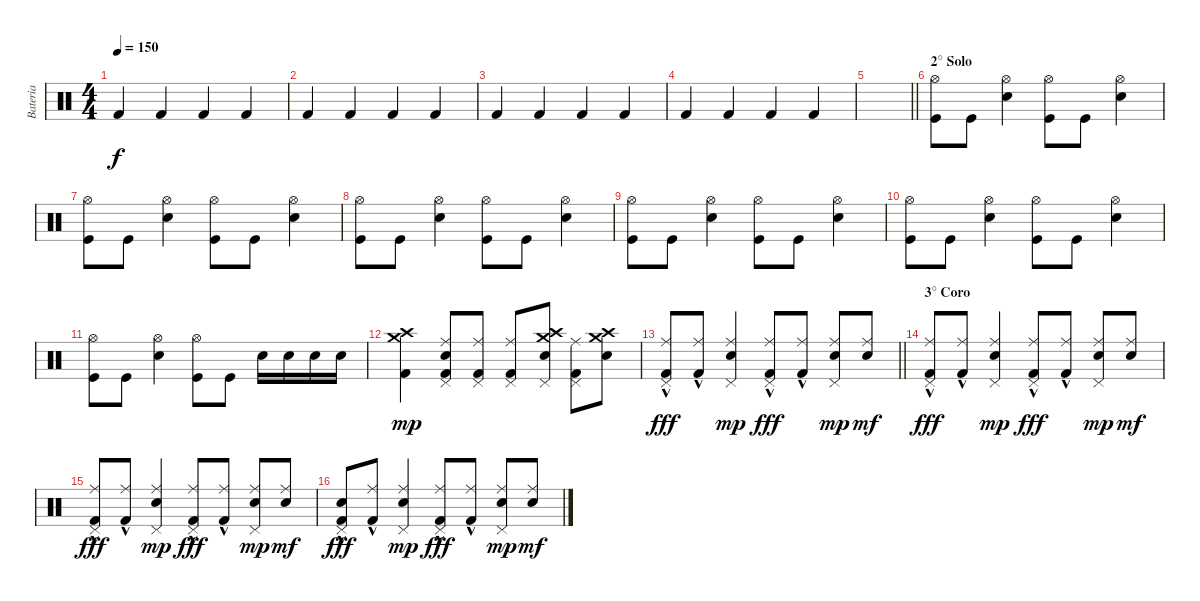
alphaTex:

\track ("Bateria" "Bateria") {instrument percussion}
\staff {score}
\articulation defaults
\ts (4 4)
\tempo 150
\clef neutral
\ks c "Kick (hit) 2".4{dy f} "Kick (hit) 2".4 "Kick (hit) 2".4 "Kick (hit) 2".4
|
"Kick (hit) 2".4 "Kick (hit) 2".4 "Kick (hit) 2".4 "Kick (hit) 2".4 |
"Kick (hit) 2".4 "Kick (hit) 2".4 "Kick (hit) 2".4 "Kick (hit) 2".4 |
"Kick (hit) 2".4 "Kick (hit) 2".4 "Kick (hit) 2".4 "Kick (hit) 2".4 |
\barLineRight lightlight
|
\section ("" "2° Solo ")
("Hi-Hat (open)" "Kick (hit)").8 "Kick (hit)".8 ("Hi-Hat (open)" "Snare (hit) 2").4 ("Hi-Hat (open)" "Kick (hit)").8 "Kick (hit)".8 ("Hi-Hat (open)" "Snare (hit) 2").4 |
("Hi-Hat (open)" "Kick (hit)").8 "Kick (hit)".8 ("Hi-Hat (open)" "Snare (hit) 2").4 ("Hi-Hat (open)" "Kick (hit)").8 "Kick (hit)".8 ("Hi-Hat (open)" "Snare (hit) 2").4 |
("Hi-Hat (open)" "Kick (hit)").8 "Kick (hit)".8 ("Hi-Hat (open)" "Snare (hit) 2").4 ("Hi-Hat (open)" "Kick (hit)").8 "Kick (hit)".8 ("Hi-Hat (open)" "Snare (hit) 2").4 |
("Hi-Hat (open)" "Kick (hit)").8 "Kick (hit)".8 ("Hi-Hat (open)" "Snare (hit) 2").4 ("Hi-Hat (open)" "Kick (hit)").8 "Kick (hit)".8 ("Hi-Hat (open)" "Snare (hit) 2").4 |
("Hi-Hat (open)" "Kick (hit)").8 "Kick (hit)".8 ("Hi-Hat (open)" "Snare (hit) 2").4 ("Hi-Hat (open)" "Kick (hit)").8 "Kick (hit)".8 ("Hi-Hat (open)" "Snare (hit) 2").4 |
("Hi-Hat (open)" "Kick (hit)").8 "Kick (hit)".8 ("Hi-Hat (open)" "Snare (hit) 2").4 ("Hi-Hat (open)" "Kick (hit)").8 "Kick (hit)".8 "Electric Snare (hit)".16 "Electric Snare (hit)".16 "Electric Snare (hit)".16 "Electric Snare (hit)".16 |
("Crash high (hit)" "Crash medium (hit)" "Kick (hit) 2").4{dy mp} ("Ride (middle)" "Pedal Hi-Hat (hit)" "Electric Snare (hit)" "Kick (hit) 2").8 ("Ride (middle)" "Pedal Hi-Hat (hit)" "Kick (hit) 2").8 ("Ride (middle)" "Pedal Hi-Hat (hit)" "Kick (hit) 2").8 ("Crash high (hit)" "Pedal Hi-Hat (hit)" "Electric Snare (hit)" "Crash medium (hit)").8 ("Ride (middle)" "Pedal Hi-Hat (hit)" "Kick (hit) 2").8 ("Crash medium (hit)" "Electric Snare (hit)" "Crash high (hit)").8 |
\barLineRight lightlight
("Ride (middle)" "Pedal Hi-Hat (hit)" "Kick (hit) 2"{hac}).8{dy fff} ("Ride (middle)" "Kick (hit) 2"{hac}).8 ("Ride (middle)" "Pedal Hi-Hat (hit)" "Electric Snare (hit)").4{dy mp} ("Ride (middle)" "Pedal Hi-Hat (hit)" "Kick (hit) 2"{hac}).8{dy fff} ("Ride (middle)" "Kick (hit) 2"{hac}).8 ("Ride (middle)" "Pedal Hi-Hat (hit)" "Electric Snare (hit)").8{dy mp} ("Ride (middle)" "Electric Snare (hit)").8{dy mf} |
\section ("" "3° Coro")
("Ride (middle)" "Pedal Hi-Hat (hit)" "Kick (hit) 2"{hac}).8{dy fff} ("Ride (middle)" "Kick (hit) 2"{hac}).8 ("Ride (middle)" "Pedal Hi-Hat (hit)" "Electric Snare (hit)").4{dy mp} ("Ride (middle)" "Pedal Hi-Hat (hit)" "Kick (hit) 2"{hac}).8{dy fff} ("Ride (middle)" "Kick (hit) 2"{hac}).8 ("Ride (middle)" "Pedal Hi-Hat (hit)" "Electric Snare (hit)").8{dy mp} ("Ride (middle)" "Electric Snare (hit)").8{dy mf} |
("Ride (middle)" "Pedal Hi-Hat (hit)" "Kick (hit) 2"{hac}).8{dy fff} ("Ride (middle)" "Kick (hit) 2"{hac}).8 ("Ride (middle)" "Pedal Hi-Hat (hit)" "Electric Snare (hit)").4{dy mp} ("Ride (middle)" "Pedal Hi-Hat (hit)" "Kick (hit) 2"{hac}).8{dy fff} ("Ride (middle)" "Kick (hit) 2"{hac}).8 ("Ride (middle)" "Pedal Hi-Hat (hit)" "Electric Snare (hit)").8{dy mp} ("Ride (middle)" "Electric Snare (hit)").8{dy mf} |
("Snare (hit)" "Pedal Hi-Hat (hit)" "Kick (hit) 2"{hac}).8{dy fff} ("Ride (middle)" "Kick (hit) 2"{hac}).8 ("Ride (middle)" "Pedal Hi-Hat (hit)" "Electric Snare (hit)").4{dy mp} ("Ride (middle)" "Pedal Hi-Hat (hit)" "Kick (hit) 2"{hac}).8{dy fff} ("Ride (middle)" "Kick (hit) 2"{hac}).8 ("Ride (middle)" "Pedal Hi-Hat (hit)" "Electric Snare (hit)").8{dy mp} ("Ride (middle)" "Electric Snare (hit)").8{dy mf}
